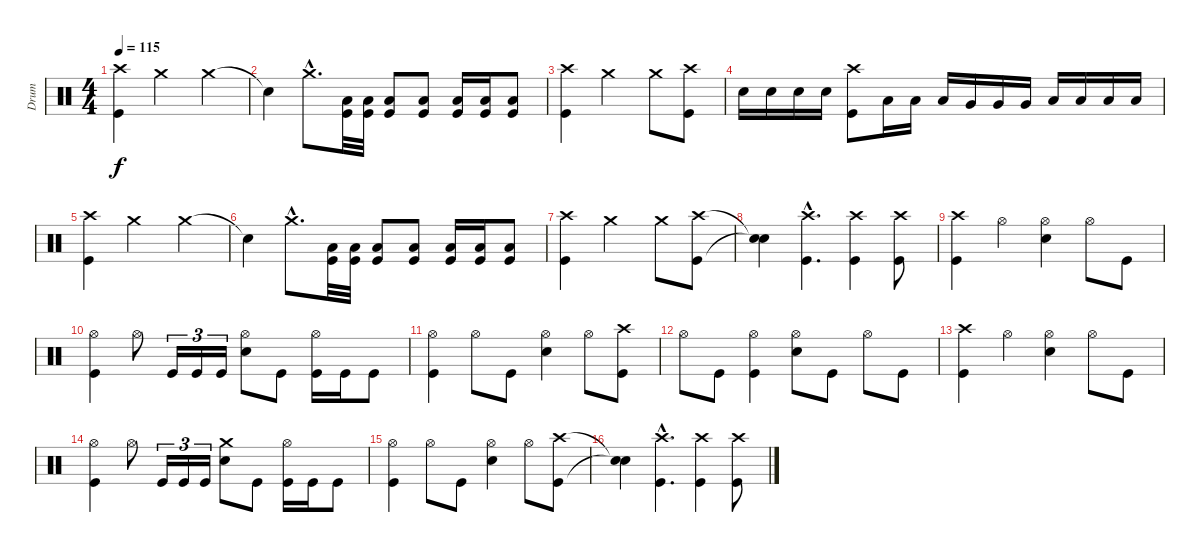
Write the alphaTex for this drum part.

\track ("Drum" "Drum") {instrument percussion}
\staff {score}
\articulation defaults
\ts (4 4)
\tempo 115
\clef neutral
\ks c
("Kick (hit)" "Crash high (hit)").4{dy f} "Crash medium (hit)".2 "Crash medium (hit)".4 |
"Snare (hit)"{t}.4 "Crash medium (hit)"{hac}.8{d} ("Kick (hit)" "Low Floor Tom (hit)").32 ("Kick (hit)" "Low Floor Tom (hit)").32 ("Kick (hit)" "Low Floor Tom (hit)").8 ("Kick (hit)" "Low Floor Tom (hit)").8 ("Kick (hit)" "Low Floor Tom (hit)").16 ("Kick (hit)" "Low Floor Tom (hit)").16 ("Kick (hit)" "Low Floor Tom (hit)").8 |
("Kick (hit)" "Crash high (hit)").4 "Crash medium (hit)".2 "Crash medium (hit)".8 ("Kick (hit)" "Crash high (hit)").8 |
"Snare (hit) 2".16 "Snare (hit) 2".16 "Snare (hit) 2".16 "Snare (hit) 2".16 ("Kick (hit)" "Crash high (hit)").8 "Low Tom (hit)".16 "Low Tom (hit)".16 "Low Tom (hit)".16 "Very Low Tom (hit)".16 "Very Low Tom (hit)".16 "Very Low Tom (hit)".16 "Low Floor Tom (hit)".16 "Low Floor Tom (hit)".16 "Low Floor Tom (hit)".16 "Low Floor Tom (hit)".16 |
("Kick (hit)" "Crash high (hit)").4 "Crash medium (hit)".2 "Crash medium (hit)".4 |
"Snare (hit)"{t}.4 "Crash medium (hit)"{hac}.8{d} ("Kick (hit)" "Low Floor Tom (hit)").32 ("Kick (hit)" "Low Floor Tom (hit)").32 ("Kick (hit)" "Low Floor Tom (hit)").8 ("Kick (hit)" "Low Floor Tom (hit)").8 ("Kick (hit)" "Low Floor Tom (hit)").16 ("Kick (hit)" "Low Floor Tom (hit)").16 ("Kick (hit)" "Low Floor Tom (hit)").8 |
("Kick (hit)" "Crash high (hit)").4 "Crash medium (hit)".2 "Crash medium (hit)".8 ("Kick (hit)" "Crash high (hit)").8 |
("Snare (hit)"{t} "Snare (hit)"{t}).4 ("Kick (hit)"{hac} "Crash high (hit)"{hac}).4{d} ("Kick (hit)" "Crash high (hit)").4 ("Kick (hit)" "Crash high (hit)").8 |
("Kick (hit)" "Crash high (hit)").4 "Hi-Hat (open)".4 ("Hi-Hat (open)" "Snare (hit) 2").4 "Hi-Hat (open)".8 "Kick (hit)".8 |
("Kick (hit)" "Hi-Hat (open)").4 "Hi-Hat (open)".8 "Kick (hit)".16{tu (3 2)} "Kick (hit)".16{tu (3 2)} "Kick (hit)".16{tu (3 2)} ("Hi-Hat (open)" "Snare (hit) 2").8 "Kick (hit)".8 ("Kick (hit)" "Hi-Hat (open)").16 "Kick (hit)".16 "Kick (hit)".8 |
("Kick (hit)" "Hi-Hat (open)").4 "Hi-Hat (open)".8 "Kick (hit)".8 ("Hi-Hat (open)" "Snare (hit) 2").4 "Hi-Hat (open)".8 ("Kick (hit)" "Crash high (hit)").8 |
"Hi-Hat (open)".8 "Kick (hit)".8 ("Kick (hit)" "Hi-Hat (open)").4 ("Hi-Hat (open)" "Snare (hit) 2").8 "Kick (hit)".8 "Hi-Hat (open)".8 "Kick (hit)".8 |
("Kick (hit)" "Crash high (hit)").4 "Hi-Hat (open)".4 ("Hi-Hat (open)" "Snare (hit) 2").4 "Hi-Hat (open)".8 "Kick (hit)".8 |
("Kick (hit)" "Hi-Hat (open)").4 "Hi-Hat (open)".8 "Kick (hit)".16{tu (3 2)} "Kick (hit)".16{tu (3 2)} "Kick (hit)".16{tu (3 2)} ("Crash medium (hit)" "Snare (hit) 2").8 "Kick (hit)".8 ("Kick (hit)" "Hi-Hat (open)").16 "Kick (hit)".16 "Kick (hit)".8 |
("Kick (hit)" "Hi-Hat (open)").4 "Hi-Hat (open)".8 "Kick (hit)".8 ("Hi-Hat (open)" "Snare (hit) 2").4 "Hi-Hat (open)".8 ("Kick (hit)" "Crash high (hit)").8 |
("Snare (hit)"{t} "Snare (hit)"{t}).4 ("Kick (hit)"{hac} "Crash high (hit)"{hac}).4{d} ("Kick (hit)" "Crash high (hit)").4 ("Kick (hit)" "Crash high (hit)").8
